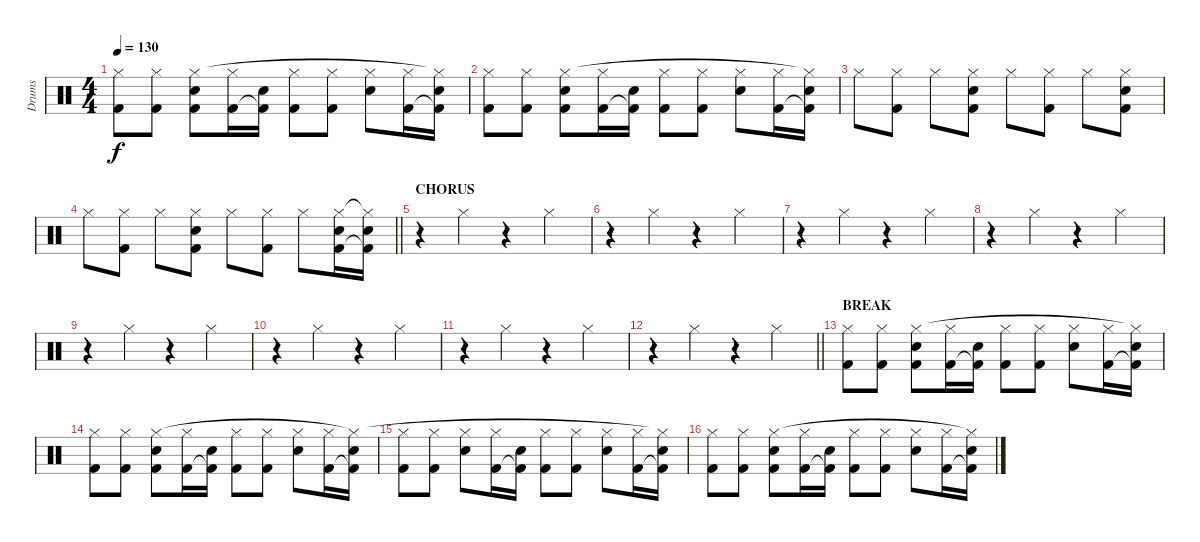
\track ("Drums" "Drums") {instrument percussion}
\staff {score}
\articulation defaults
\ts (4 4)
\tempo 130
\clef neutral
\ks c
("Kick (hit) 2" "Hi-Hat (closed)").8{dy f} ("Kick (hit) 2" "Hi-Hat (closed)").8 ("Kick (hit) 2" "Electric Snare (hit)" "Hi-Hat (closed)").8 ("Kick (hit) 2" "Hi-Hat (closed)").16 ("Kick (hit) 2"{t} "Electric Snare (hit)").16 ("Kick (hit) 2" "Hi-Hat (closed)").8 ("Kick (hit) 2" "Hi-Hat (closed)").8 ("Electric Snare (hit)" "Hi-Hat (closed)").8 ("Kick (hit) 2" "Hi-Hat (closed)").16 ("Kick (hit) 2"{t} "Electric Snare (hit)" "Hi-Hat (closed)"{t}).16 |
("Kick (hit) 2" "Hi-Hat (closed)").8 ("Kick (hit) 2" "Hi-Hat (closed)").8 ("Kick (hit) 2" "Electric Snare (hit)" "Hi-Hat (closed)").8 ("Kick (hit) 2" "Hi-Hat (closed)").16 ("Kick (hit) 2"{t} "Electric Snare (hit)").16 ("Kick (hit) 2" "Hi-Hat (closed)").8 ("Kick (hit) 2" "Hi-Hat (closed)").8 ("Electric Snare (hit)" "Hi-Hat (closed)").8 ("Kick (hit) 2" "Hi-Hat (closed)").16 ("Kick (hit) 2"{t} "Electric Snare (hit)" "Hi-Hat (closed)"{t}).16 |
"Hi-Hat (closed)".8 ("Kick (hit) 2" "Hi-Hat (closed)").8 "Hi-Hat (closed)".8 ("Kick (hit) 2" "Electric Snare (hit)" "Hi-Hat (closed)").8 "Hi-Hat (closed)".8 ("Kick (hit) 2" "Hi-Hat (closed)").8 "Hi-Hat (closed)".8 ("Kick (hit) 2" "Electric Snare (hit)" "Hi-Hat (closed)").8 |
\barLineRight lightlight "Hi-Hat (closed)".8
("Kick (hit) 2" "Hi-Hat (closed)").8 "Hi-Hat (closed)".8 ("Kick (hit) 2" "Electric Snare (hit)" "Hi-Hat (closed)").8 "Hi-Hat (closed)".8 ("Kick (hit) 2" "Hi-Hat (closed)").8 "Hi-Hat (closed)".8 ("Kick (hit) 2" "Electric Snare (hit)" "Hi-Hat (closed)").16 ("Kick (hit) 2"{t} "Electric Snare (hit)" "Hi-Hat (closed)"{t}).16 |
\section ("" "CHORUS")
r.4 "Hi-Hat (closed)".4 r.4 "Hi-Hat (closed)".4 |
r.4 "Hi-Hat (closed)".4 r.4 "Hi-Hat (closed)".4 |
r.4 "Hi-Hat (closed)".4 r.4 "Hi-Hat (closed)".4 |
r.4 "Hi-Hat (closed)".4 r.4 "Hi-Hat (closed)".4 |
r.4 "Hi-Hat (closed)".4 r.4 "Hi-Hat (closed)".4 |
r.4 "Hi-Hat (closed)".4 r.4 "Hi-Hat (closed)".4 |
r.4 "Hi-Hat (closed)".4 r.4 "Hi-Hat (closed)".4 |
\barLineRight lightlight
r.4 "Hi-Hat (closed)".4 r.4 "Hi-Hat (closed)".4 |
\section ("" "BREAK")
("Kick (hit) 2" "Hi-Hat (closed)").8 ("Kick (hit) 2" "Hi-Hat (closed)").8 ("Kick (hit) 2" "Electric Snare (hit)" "Hi-Hat (closed)").8 ("Kick (hit) 2" "Hi-Hat (closed)").16 ("Kick (hit) 2"{t} "Electric Snare (hit)").16 ("Kick (hit) 2" "Hi-Hat (closed)").8 ("Kick (hit) 2" "Hi-Hat (closed)").8 ("Electric Snare (hit)" "Hi-Hat (closed)").8 ("Kick (hit) 2" "Hi-Hat (closed)").16 ("Kick (hit) 2"{t} "Electric Snare (hit)" "Hi-Hat (closed)"{t}).16 |
("Kick (hit) 2" "Hi-Hat (closed)").8 ("Kick (hit) 2" "Hi-Hat (closed)").8 ("Kick (hit) 2" "Electric Snare (hit)" "Hi-Hat (closed)").8 ("Kick (hit) 2" "Hi-Hat (closed)").16 ("Kick (hit) 2"{t} "Electric Snare (hit)").16 ("Kick (hit) 2" "Hi-Hat (closed)").8 ("Kick (hit) 2" "Hi-Hat (closed)").8 ("Electric Snare (hit)" "Hi-Hat (closed)").8 ("Kick (hit) 2" "Hi-Hat (closed)").16 ("Kick (hit) 2"{t} "Electric Snare (hit)" "Hi-Hat (closed)"{t}).16 |
("Kick (hit) 2" "Hi-Hat (closed)").8 ("Kick (hit) 2" "Hi-Hat (closed)").8 ("Electric Snare (hit)" "Hi-Hat (closed)").8 ("Kick (hit) 2" "Hi-Hat (closed)").16 ("Kick (hit) 2"{t} "Electric Snare (hit)").16 ("Kick (hit) 2" "Hi-Hat (closed)").8 ("Kick (hit) 2" "Hi-Hat (closed)").8 ("Electric Snare (hit)" "Hi-Hat (closed)").8 ("Kick (hit) 2" "Hi-Hat (closed)").16 ("Kick (hit) 2"{t} "Electric Snare (hit)" "Hi-Hat (closed)"{t}).16 |
("Kick (hit) 2" "Hi-Hat (closed)").8 ("Kick (hit) 2" "Hi-Hat (closed)").8 ("Kick (hit) 2" "Electric Snare (hit)" "Hi-Hat (closed)").8 ("Kick (hit) 2" "Hi-Hat (closed)").16 ("Kick (hit) 2"{t} "Electric Snare (hit)").16 ("Kick (hit) 2" "Hi-Hat (closed)").8 ("Kick (hit) 2" "Hi-Hat (closed)").8 ("Electric Snare (hit)" "Hi-Hat (closed)").8 ("Kick (hit) 2" "Hi-Hat (closed)").16 ("Kick (hit) 2"{t} "Electric Snare (hit)" "Hi-Hat (closed)"{t}).16
